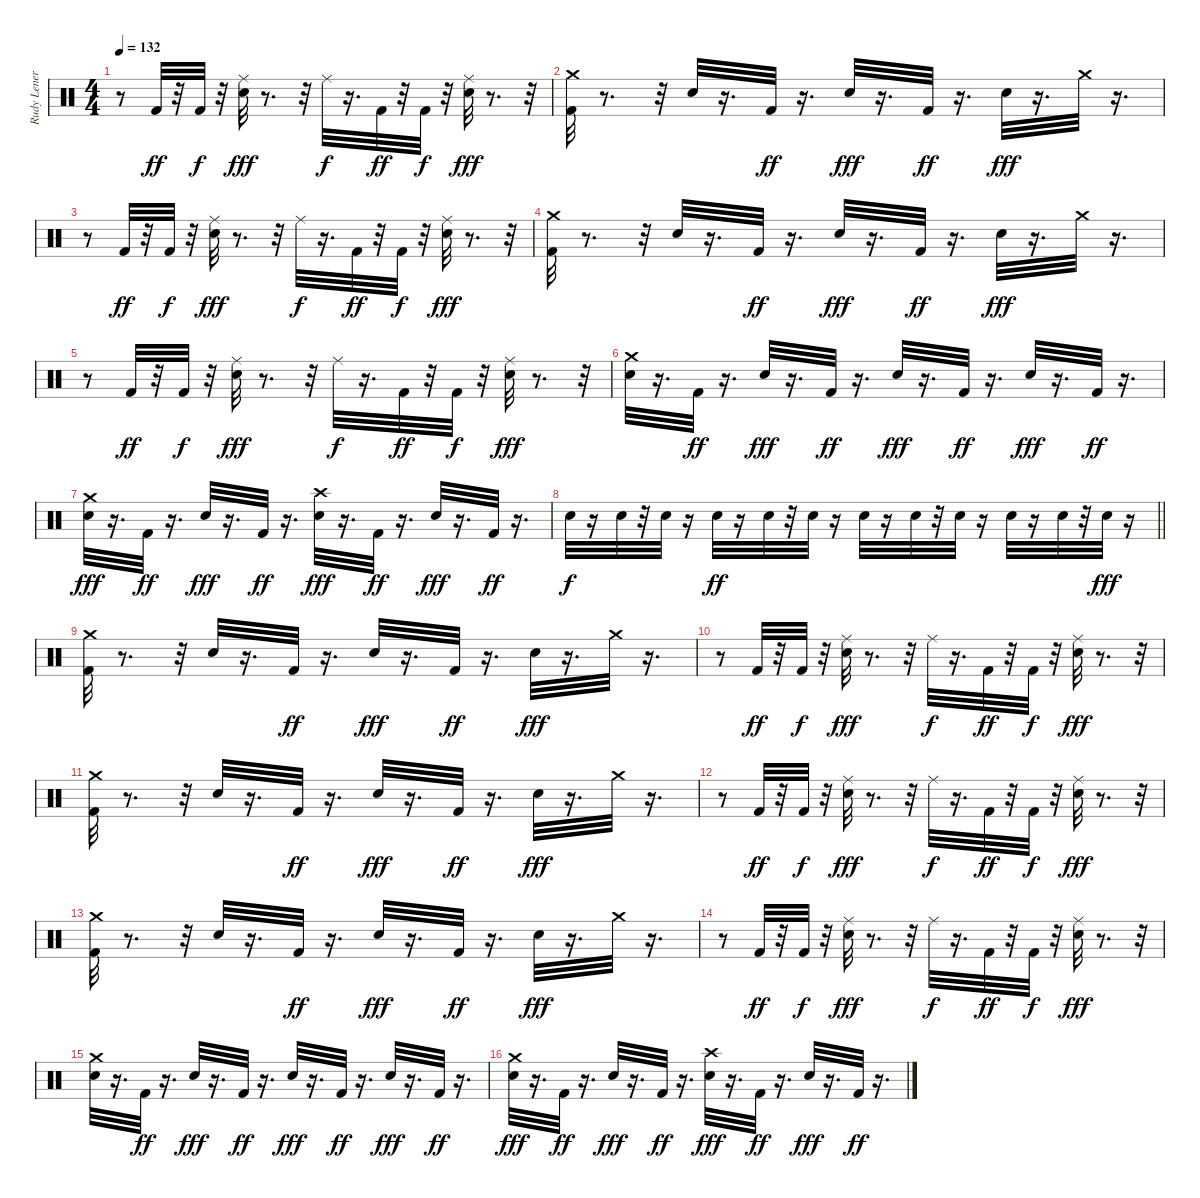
\track ("Rudy Leners" "Rudy Lener") {instrument percussion}
\staff {score}
\articulation defaults
\ts (4 4)
\tempo 132
\clef neutral
\ks c
r.8{dy fff} "Kick (hit) 2".32{dy ff} r.32 "Kick (hit) 2".32{dy f} r.32 ("Ride (middle)" "Snare (hit) 2").32{dy fff} r.8{d} r.32 "Ride (middle)".32{dy f} r.16{d} "Kick (hit) 2".32{dy ff} r.32 "Kick (hit) 2".32{dy f} r.32 ("Ride (middle)" "Snare (hit) 2").32{dy fff} r.8{d} r.32 |
("Kick (hit) 2" "Crash medium (hit)").32 r.8{d} r.32 "Snare (hit) 2".32 r.16{d} "Kick (hit) 2".32{dy ff} r.16{d} "Snare (hit) 2".32{dy fff} r.16{d} "Kick (hit) 2".32{dy ff} r.16{d} "Snare (hit) 2".32{dy fff} r.16{d} "Crash medium (hit)".32 r.16{d} |
r.8 "Kick (hit) 2".32{dy ff} r.32 "Kick (hit) 2".32{dy f} r.32 ("Ride (middle)" "Snare (hit) 2").32{dy fff} r.8{d} r.32 "Ride (middle)".32{dy f} r.16{d} "Kick (hit) 2".32{dy ff} r.32 "Kick (hit) 2".32{dy f} r.32 ("Ride (middle)" "Snare (hit) 2").32{dy fff} r.8{d} r.32 |
("Kick (hit) 2" "Crash medium (hit)").32 r.8{d} r.32 "Snare (hit) 2".32 r.16{d} "Kick (hit) 2".32{dy ff} r.16{d} "Snare (hit) 2".32{dy fff} r.16{d} "Kick (hit) 2".32{dy ff} r.16{d} "Snare (hit) 2".32{dy fff} r.16{d} "Crash medium (hit)".32 r.16{d} |
r.8 "Kick (hit) 2".32{dy ff} r.32 "Kick (hit) 2".32{dy f} r.32 ("Ride (middle)" "Snare (hit) 2").32{dy fff} r.8{d} r.32 "Ride (middle)".32{dy f} r.16{d} "Kick (hit) 2".32{dy ff} r.32 "Kick (hit) 2".32{dy f} r.32 ("Ride (middle)" "Snare (hit) 2").32{dy fff} r.8{d} r.32 |
("Crash medium (hit)" "Snare (hit) 2").32 r.16{d} "Kick (hit) 2".32{dy ff} r.16{d} "Snare (hit) 2".32{dy fff} r.16{d} "Kick (hit) 2".32{dy ff} r.16{d} "Snare (hit) 2".32{dy fff} r.16{d} "Kick (hit) 2".32{dy ff} r.16{d} "Snare (hit) 2".32{dy fff} r.16{d} "Kick (hit) 2".32{dy ff} r.16{d} |
("Snare (hit) 2" "Crash medium (hit)").32{dy fff} r.16{d} "Kick (hit) 2".32{dy ff} r.16{d} "Snare (hit) 2".32{dy fff} r.16{d} "Kick (hit) 2".32{dy ff} r.16{d} ("Crash high (hit)" "Snare (hit) 2").32{dy fff} r.16{d} "Kick (hit) 2".32{dy ff} r.16{d} "Snare (hit) 2".32{dy fff} r.16{d} "Kick (hit) 2".32{dy ff} r.16{d} |
\barLineRight lightlight "Snare (hit) 2".32{dy f}
r.16 "Snare (hit) 2".32 r.32 "Snare (hit) 2".32 r.16 "Snare (hit) 2".32{dy ff} r.16 "Snare (hit) 2".32 r.32 "Snare (hit) 2".32 r.16 "Snare (hit) 2".32 r.16 "Snare (hit) 2".32 r.32 "Snare (hit) 2".32 r.16 "Snare (hit) 2".32 r.16 "Snare (hit) 2".32 r.32 "Snare (hit) 2".32{dy fff} r.16 |
("Kick (hit) 2" "Crash medium (hit)").32 r.8{d} r.32 "Snare (hit) 2".32 r.16{d} "Kick (hit) 2".32{dy ff} r.16{d} "Snare (hit) 2".32{dy fff} r.16{d} "Kick (hit) 2".32{dy ff} r.16{d} "Snare (hit) 2".32{dy fff} r.16{d} "Crash medium (hit)".32 r.16{d} |
r.8 "Kick (hit) 2".32{dy ff} r.32 "Kick (hit) 2".32{dy f} r.32 ("Ride (middle)" "Snare (hit) 2").32{dy fff} r.8{d} r.32 "Ride (middle)".32{dy f} r.16{d} "Kick (hit) 2".32{dy ff} r.32 "Kick (hit) 2".32{dy f} r.32 ("Ride (middle)" "Snare (hit) 2").32{dy fff} r.8{d} r.32 |
("Kick (hit) 2" "Crash medium (hit)").32 r.8{d} r.32 "Snare (hit) 2".32 r.16{d} "Kick (hit) 2".32{dy ff} r.16{d} "Snare (hit) 2".32{dy fff} r.16{d} "Kick (hit) 2".32{dy ff} r.16{d} "Snare (hit) 2".32{dy fff} r.16{d} "Crash medium (hit)".32 r.16{d} |
r.8 "Kick (hit) 2".32{dy ff} r.32 "Kick (hit) 2".32{dy f} r.32 ("Ride (middle)" "Snare (hit) 2").32{dy fff} r.8{d} r.32 "Ride (middle)".32{dy f} r.16{d} "Kick (hit) 2".32{dy ff} r.32 "Kick (hit) 2".32{dy f} r.32 ("Ride (middle)" "Snare (hit) 2").32{dy fff} r.8{d} r.32 |
("Kick (hit) 2" "Crash medium (hit)").32 r.8{d} r.32 "Snare (hit) 2".32 r.16{d} "Kick (hit) 2".32{dy ff} r.16{d} "Snare (hit) 2".32{dy fff} r.16{d} "Kick (hit) 2".32{dy ff} r.16{d} "Snare (hit) 2".32{dy fff} r.16{d} "Crash medium (hit)".32 r.16{d} |
r.8 "Kick (hit) 2".32{dy ff} r.32 "Kick (hit) 2".32{dy f} r.32 ("Ride (middle)" "Snare (hit) 2").32{dy fff} r.8{d} r.32 "Ride (middle)".32{dy f} r.16{d} "Kick (hit) 2".32{dy ff} r.32 "Kick (hit) 2".32{dy f} r.32 ("Ride (middle)" "Snare (hit) 2").32{dy fff} r.8{d} r.32 |
("Crash medium (hit)" "Snare (hit) 2").32 r.16{d} "Kick (hit) 2".32{dy ff} r.16{d} "Snare (hit) 2".32{dy fff} r.16{d} "Kick (hit) 2".32{dy ff} r.16{d} "Snare (hit) 2".32{dy fff} r.16{d} "Kick (hit) 2".32{dy ff} r.16{d} "Snare (hit) 2".32{dy fff} r.16{d} "Kick (hit) 2".32{dy ff} r.16{d} |
("Snare (hit) 2" "Crash medium (hit)").32{dy fff} r.16{d} "Kick (hit) 2".32{dy ff} r.16{d} "Snare (hit) 2".32{dy fff} r.16{d} "Kick (hit) 2".32{dy ff} r.16{d} ("Crash high (hit)" "Snare (hit) 2").32{dy fff} r.16{d} "Kick (hit) 2".32{dy ff} r.16{d} "Snare (hit) 2".32{dy fff} r.16{d} "Kick (hit) 2".32{dy ff} r.16{d}
